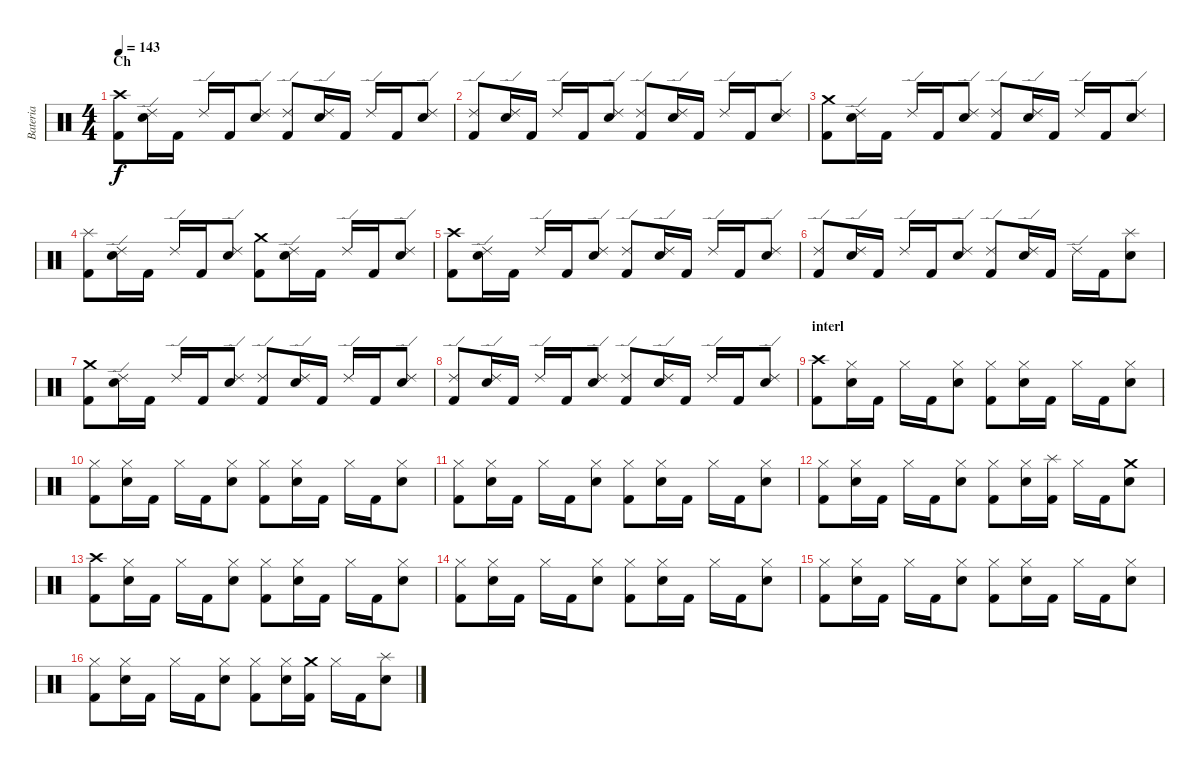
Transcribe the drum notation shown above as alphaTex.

\track ("Bateria" "Bateria") {instrument percussion}
\staff {score}
\articulation defaults
\ts (4 4)
\section ("" "Ch")
\tempo 143
\clef neutral
\ks c
("Crash high (hit)" "Kick (hit) 2").8{dy f} ("Ride (edge) 2" "Snare (hit) 2").16 "Kick (hit) 2".16 "Ride (edge) 2".16 "Kick (hit) 2".16 ("Ride (edge) 2" "Snare (hit) 2").8 ("Ride (edge) 2" "Kick (hit) 2").8 ("Ride (edge) 2" "Snare (hit) 2").16 "Kick (hit) 2".16 "Ride (edge) 2".16 "Kick (hit) 2".16 ("Ride (edge) 2" "Snare (hit) 2").8 |
("Ride (edge) 2" "Kick (hit) 2").8 ("Ride (edge) 2" "Snare (hit) 2").16 "Kick (hit) 2".16 "Ride (edge) 2".16 "Kick (hit) 2".16 ("Ride (edge) 2" "Snare (hit) 2").8 ("Ride (edge) 2" "Kick (hit) 2").8 ("Ride (edge) 2" "Snare (hit) 2").16 "Kick (hit) 2".16 "Ride (edge) 2".16 "Kick (hit) 2".16 ("Ride (edge) 2" "Snare (hit) 2").8 |
("Crash medium (hit)" "Kick (hit) 2").8 ("Ride (edge) 2" "Snare (hit) 2").16 "Kick (hit) 2".16 "Ride (edge) 2".16 "Kick (hit) 2".16 ("Ride (edge) 2" "Snare (hit) 2").8 ("Ride (edge) 2" "Kick (hit) 2").8 ("Ride (edge) 2" "Snare (hit) 2").16 "Kick (hit) 2".16 "Ride (edge) 2".16 "Kick (hit) 2".16 ("Ride (edge) 2" "Snare (hit) 2").8 |
("Splash (hit)" "Kick (hit) 2").8 ("Ride (edge) 2" "Snare (hit) 2").16 "Kick (hit) 2".16 "Ride (edge) 2".16 "Kick (hit) 2".16 ("Ride (edge) 2" "Snare (hit) 2").8 ("Crash medium (hit)" "Kick (hit) 2").8 ("Ride (edge) 2" "Snare (hit) 2").16 "Kick (hit) 2".16 "Ride (edge) 2".16 "Kick (hit) 2".16 ("Ride (edge) 2" "Snare (hit) 2").8 |
("Crash high (hit)" "Kick (hit) 2").8 ("Ride (edge) 2" "Snare (hit) 2").16 "Kick (hit) 2".16 "Ride (edge) 2".16 "Kick (hit) 2".16 ("Ride (edge) 2" "Snare (hit) 2").8 ("Ride (edge) 2" "Kick (hit) 2").8 ("Ride (edge) 2" "Snare (hit) 2").16 "Kick (hit) 2".16 "Ride (edge) 2".16 "Kick (hit) 2".16 ("Ride (edge) 2" "Snare (hit) 2").8 |
("Ride (edge) 2" "Kick (hit) 2").8 ("Ride (edge) 2" "Snare (hit) 2").16 "Kick (hit) 2".16 "Ride (edge) 2".16 "Kick (hit) 2".16 ("Ride (edge) 2" "Snare (hit) 2").8 ("Ride (edge) 2" "Kick (hit) 2").8 ("Ride (edge) 2" "Snare (hit) 2").16 "Kick (hit) 2".16 "Ride (edge) 2".16 "Kick (hit) 2".16 ("Splash (hit)" "Snare (hit) 2").8 |
("Crash medium (hit)" "Kick (hit) 2").8 ("Ride (edge) 2" "Snare (hit) 2").16 "Kick (hit) 2".16 "Ride (edge) 2".16 "Kick (hit) 2".16 ("Ride (edge) 2" "Snare (hit) 2").8 ("Ride (edge) 2" "Kick (hit) 2").8 ("Ride (edge) 2" "Snare (hit) 2").16 "Kick (hit) 2".16 "Ride (edge) 2".16 "Kick (hit) 2".16 ("Ride (edge) 2" "Snare (hit) 2").8 |
("Ride (edge) 2" "Kick (hit) 2").8 ("Ride (edge) 2" "Snare (hit) 2").16 "Kick (hit) 2".16 "Ride (edge) 2".16 "Kick (hit) 2".16 ("Ride (edge) 2" "Snare (hit) 2").8 ("Ride (edge) 2" "Kick (hit) 2").8 ("Ride (edge) 2" "Snare (hit) 2").16 "Kick (hit) 2".16 "Ride (edge) 2".16 "Kick (hit) 2".16 ("Ride (edge) 2" "Snare (hit) 2").8 |
\section ("" "interl")
("Crash high (hit)" "Kick (hit) 2").8 ("Hi-Hat (closed)" "Snare (hit) 2").16 "Kick (hit) 2".16 "Hi-Hat (closed)".16 "Kick (hit) 2".16 ("Hi-Hat (closed)" "Snare (hit) 2").8 ("Hi-Hat (closed)" "Kick (hit) 2").8 ("Hi-Hat (closed)" "Snare (hit) 2").16 "Kick (hit) 2".16 "Hi-Hat (closed)".16 "Kick (hit) 2".16 ("Hi-Hat (closed)" "Snare (hit) 2").8 |
("Hi-Hat (closed)" "Kick (hit) 2").8 ("Hi-Hat (closed)" "Snare (hit) 2").16 "Kick (hit) 2".16 "Hi-Hat (closed)".16 "Kick (hit) 2".16 ("Hi-Hat (closed)" "Snare (hit) 2").8 ("Hi-Hat (closed)" "Kick (hit) 2").8 ("Hi-Hat (closed)" "Snare (hit) 2").16 "Kick (hit) 2".16 "Hi-Hat (closed)".16 "Kick (hit) 2".16 ("Hi-Hat (closed)" "Snare (hit) 2").8 |
("Hi-Hat (closed)" "Kick (hit) 2").8 ("Hi-Hat (closed)" "Snare (hit) 2").16 "Kick (hit) 2".16 "Hi-Hat (closed)".16 "Kick (hit) 2".16 ("Hi-Hat (closed)" "Snare (hit) 2").8 ("Hi-Hat (closed)" "Kick (hit) 2").8 ("Hi-Hat (closed)" "Snare (hit) 2").16 "Kick (hit) 2".16 "Hi-Hat (closed)".16 "Kick (hit) 2".16 ("Hi-Hat (closed)" "Snare (hit) 2").8 |
("Hi-Hat (closed)" "Kick (hit) 2").8 ("Hi-Hat (closed)" "Snare (hit) 2").16 "Kick (hit) 2".16 "Hi-Hat (closed)".16 "Kick (hit) 2".16 ("Hi-Hat (closed)" "Snare (hit) 2").8 ("Hi-Hat (closed)" "Kick (hit) 2").8 ("Hi-Hat (closed)" "Snare (hit) 2").16 ("Splash (hit)" "Kick (hit) 2").16 "Hi-Hat (closed)".16 "Kick (hit) 2".16 ("Crash medium (hit)" "Snare (hit) 2").8 |
("Crash high (hit)" "Kick (hit) 2").8 ("Hi-Hat (closed)" "Snare (hit) 2").16 "Kick (hit) 2".16 "Hi-Hat (closed)".16 "Kick (hit) 2".16 ("Hi-Hat (closed)" "Snare (hit) 2").8 ("Hi-Hat (closed)" "Kick (hit) 2").8 ("Hi-Hat (closed)" "Snare (hit) 2").16 "Kick (hit) 2".16 "Hi-Hat (closed)".16 "Kick (hit) 2".16 ("Hi-Hat (closed)" "Snare (hit) 2").8 |
("Hi-Hat (closed)" "Kick (hit) 2").8 ("Hi-Hat (closed)" "Snare (hit) 2").16 "Kick (hit) 2".16 "Hi-Hat (closed)".16 "Kick (hit) 2".16 ("Hi-Hat (closed)" "Snare (hit) 2").8 ("Hi-Hat (closed)" "Kick (hit) 2").8 ("Hi-Hat (closed)" "Snare (hit) 2").16 "Kick (hit) 2".16 "Hi-Hat (closed)".16 "Kick (hit) 2".16 ("Hi-Hat (closed)" "Snare (hit) 2").8 |
("Hi-Hat (closed)" "Kick (hit) 2").8 ("Hi-Hat (closed)" "Snare (hit) 2").16 "Kick (hit) 2".16 "Hi-Hat (closed)".16 "Kick (hit) 2".16 ("Hi-Hat (closed)" "Snare (hit) 2").8 ("Hi-Hat (closed)" "Kick (hit) 2").8 ("Hi-Hat (closed)" "Snare (hit) 2").16 "Kick (hit) 2".16 "Hi-Hat (closed)".16 "Kick (hit) 2".16 ("Hi-Hat (closed)" "Snare (hit) 2").8 |
("Hi-Hat (closed)" "Kick (hit) 2").8 ("Hi-Hat (closed)" "Snare (hit) 2").16 "Kick (hit) 2".16 "Hi-Hat (closed)".16 "Kick (hit) 2".16 ("Hi-Hat (closed)" "Snare (hit) 2").8 ("Hi-Hat (closed)" "Kick (hit) 2").8 ("Hi-Hat (closed)" "Snare (hit) 2").16 ("Crash medium (hit)" "Kick (hit) 2").16 "Hi-Hat (closed)".16 "Kick (hit) 2".16 ("Splash (hit)" "Snare (hit) 2").8
